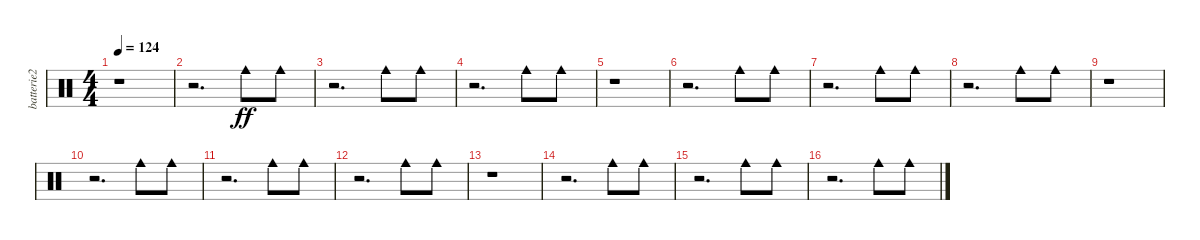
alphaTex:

\track ("batterie2" "batterie2") {instrument percussion}
\staff {score}
\articulation defaults
\ts (4 4)
\tempo 124
\clef neutral
\ks c
r.1{dy ff} |
r.2{d} "Cowbell medium (hit)".8 "Cowbell medium (hit)".8 |
r.2{d} "Cowbell medium (hit)".8 "Cowbell medium (hit)".8 |
r.2{d} "Cowbell medium (hit)".8 "Cowbell medium (hit)".8 |
r.1 |
r.2{d} "Cowbell medium (hit)".8 "Cowbell medium (hit)".8 |
r.2{d} "Cowbell medium (hit)".8 "Cowbell medium (hit)".8 |
r.2{d} "Cowbell medium (hit)".8 "Cowbell medium (hit)".8 |
r.1 |
r.2{d} "Cowbell medium (hit)".8 "Cowbell medium (hit)".8 |
r.2{d} "Cowbell medium (hit)".8 "Cowbell medium (hit)".8 |
r.2{d} "Cowbell medium (hit)".8 "Cowbell medium (hit)".8 |
r.1 |
r.2{d} "Cowbell medium (hit)".8 "Cowbell medium (hit)".8 |
r.2{d} "Cowbell medium (hit)".8 "Cowbell medium (hit)".8 |
r.2{d} "Cowbell medium (hit)".8 "Cowbell medium (hit)".8
